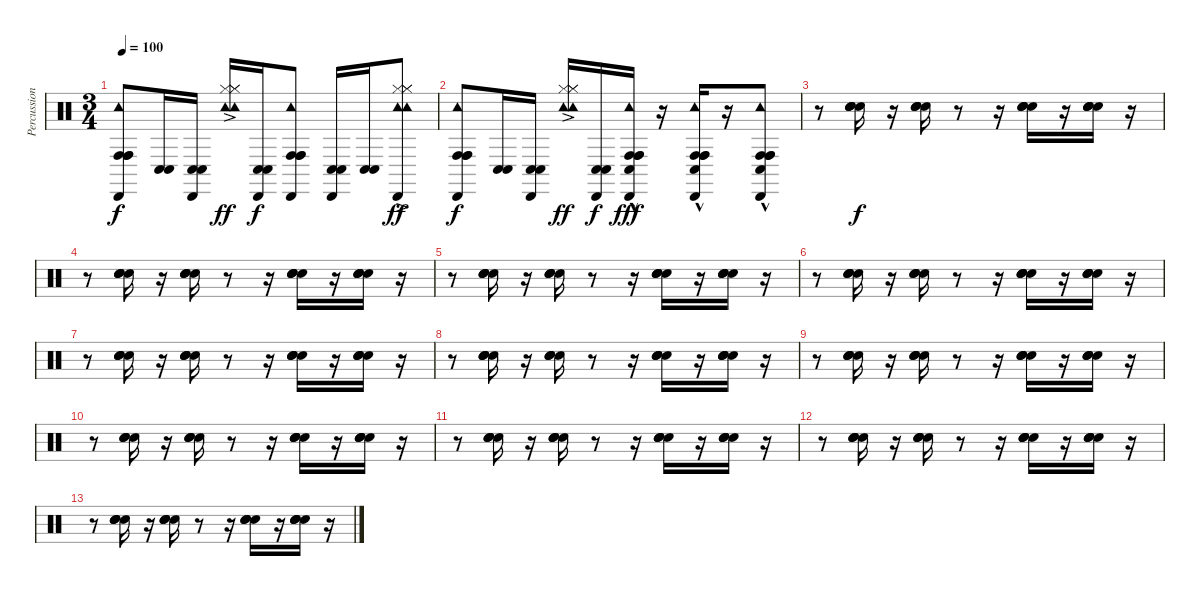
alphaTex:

\track ("Percussion" "Percussion") {instrument percussion}
\staff {score}
\articulation defaults
\ts (3 4)
\tempo 100
\clef neutral
\ks c
("Tambourine (hit)" "Conga high (hit)" "Conga high (hit)" "Conga high (hit)" "Cabasa (hit)").8{dy f} ("Conga low (hit)" "Conga low (hit)").16 ("Conga low (hit)" "Conga low (hit)" "Cabasa (hit)").16 ("Tambourine (hit)" "Tambourine (hit)" "Hi-Hat (closed)" "Hi-Hat (closed)" "Hi-Hat (closed)"{ac}).16{dy ff} ("Conga low (hit)" "Conga low (hit)" "Cabasa (hit)").16{dy f} ("Tambourine (hit)" "Conga high (hit)" "Conga high (hit)" "Conga high (hit)" "Cabasa (hit)").8 ("Conga low (hit)" "Conga low (hit)" "Cabasa (hit)").16 ("Conga low (hit)" "Conga low (hit)").16 ("Tambourine (hit)" "Tambourine (hit)" "Hi-Hat (closed)" "Hi-Hat (closed)" "Hi-Hat (closed)"{ac} "Cabasa (hit)").8{dy ff} |
("Tambourine (hit)" "Conga high (hit)" "Conga high (hit)" "Conga high (hit)" "Cabasa (hit)").8{dy f} ("Conga low (hit)" "Conga low (hit)").16 ("Conga low (hit)" "Conga low (hit)" "Cabasa (hit)").16 ("Tambourine (hit)" "Tambourine (hit)" "Hi-Hat (closed)" "Hi-Hat (closed)" "Hi-Hat (closed)"{ac}).16{dy ff} ("Conga low (hit)" "Conga low (hit)" "Cabasa (hit)").16{dy f} ("Tambourine (hit)"{hac} "Conga high (hit)"{hac} "Conga high (hit)"{hac} "Conga high (hit)"{hac} "Cabasa (hit)"{hac} "Conga low (hit)"{hac}).16{dy fff} r.16 ("Tambourine (hit)"{hac} "Conga high (hit)"{hac} "Conga high (hit)"{hac} "Conga high (hit)"{hac} "Conga low (hit)"{hac} "Cabasa (hit)"{hac}).16 r.16 ("Tambourine (hit)"{hac} "Conga high (hit)"{hac} "Conga high (hit)"{hac} "Conga high (hit)"{hac} "Conga low (hit)"{hac} "Cabasa (hit)"{hac}).8 |
r.8 ("Hand Clap (hit)" "Hand Clap (hit)" "Hand Clap (hit)" "Hand Clap (hit)").16{dy f} r.16 ("Hand Clap (hit)" "Hand Clap (hit)" "Hand Clap (hit)" "Hand Clap (hit)").16 r.8 r.16 ("Hand Clap (hit)" "Hand Clap (hit)" "Hand Clap (hit)" "Hand Clap (hit)").16 r.16 ("Hand Clap (hit)" "Hand Clap (hit)" "Hand Clap (hit)" "Hand Clap (hit)").16 r.16 |
r.8 ("Hand Clap (hit)" "Hand Clap (hit)" "Hand Clap (hit)" "Hand Clap (hit)").16 r.16 ("Hand Clap (hit)" "Hand Clap (hit)" "Hand Clap (hit)" "Hand Clap (hit)").16 r.8 r.16 ("Hand Clap (hit)" "Hand Clap (hit)" "Hand Clap (hit)" "Hand Clap (hit)").16 r.16 ("Hand Clap (hit)" "Hand Clap (hit)" "Hand Clap (hit)" "Hand Clap (hit)").16 r.16 |
r.8 ("Hand Clap (hit)" "Hand Clap (hit)" "Hand Clap (hit)" "Hand Clap (hit)").16 r.16 ("Hand Clap (hit)" "Hand Clap (hit)" "Hand Clap (hit)" "Hand Clap (hit)").16 r.8 r.16 ("Hand Clap (hit)" "Hand Clap (hit)" "Hand Clap (hit)" "Hand Clap (hit)").16 r.16 ("Hand Clap (hit)" "Hand Clap (hit)" "Hand Clap (hit)" "Hand Clap (hit)").16 r.16 |
r.8 ("Hand Clap (hit)" "Hand Clap (hit)" "Hand Clap (hit)" "Hand Clap (hit)").16 r.16 ("Hand Clap (hit)" "Hand Clap (hit)" "Hand Clap (hit)" "Hand Clap (hit)").16 r.8 r.16 ("Hand Clap (hit)" "Hand Clap (hit)" "Hand Clap (hit)" "Hand Clap (hit)").16 r.16 ("Hand Clap (hit)" "Hand Clap (hit)" "Hand Clap (hit)" "Hand Clap (hit)").16 r.16 |
r.8 ("Hand Clap (hit)" "Hand Clap (hit)" "Hand Clap (hit)" "Hand Clap (hit)").16 r.16 ("Hand Clap (hit)" "Hand Clap (hit)" "Hand Clap (hit)" "Hand Clap (hit)").16 r.8 r.16 ("Hand Clap (hit)" "Hand Clap (hit)" "Hand Clap (hit)" "Hand Clap (hit)").16 r.16 ("Hand Clap (hit)" "Hand Clap (hit)" "Hand Clap (hit)" "Hand Clap (hit)").16 r.16 |
r.8 ("Hand Clap (hit)" "Hand Clap (hit)" "Hand Clap (hit)" "Hand Clap (hit)").16 r.16 ("Hand Clap (hit)" "Hand Clap (hit)" "Hand Clap (hit)" "Hand Clap (hit)").16 r.8 r.16 ("Hand Clap (hit)" "Hand Clap (hit)" "Hand Clap (hit)" "Hand Clap (hit)").16 r.16 ("Hand Clap (hit)" "Hand Clap (hit)" "Hand Clap (hit)" "Hand Clap (hit)").16 r.16 |
r.8 ("Hand Clap (hit)" "Hand Clap (hit)" "Hand Clap (hit)" "Hand Clap (hit)").16 r.16 ("Hand Clap (hit)" "Hand Clap (hit)" "Hand Clap (hit)" "Hand Clap (hit)").16 r.8 r.16 ("Hand Clap (hit)" "Hand Clap (hit)" "Hand Clap (hit)" "Hand Clap (hit)").16 r.16 ("Hand Clap (hit)" "Hand Clap (hit)" "Hand Clap (hit)" "Hand Clap (hit)").16 r.16 |
r.8 ("Hand Clap (hit)" "Hand Clap (hit)" "Hand Clap (hit)" "Hand Clap (hit)").16 r.16 ("Hand Clap (hit)" "Hand Clap (hit)" "Hand Clap (hit)" "Hand Clap (hit)").16 r.8 r.16 ("Hand Clap (hit)" "Hand Clap (hit)" "Hand Clap (hit)" "Hand Clap (hit)").16 r.16 ("Hand Clap (hit)" "Hand Clap (hit)" "Hand Clap (hit)" "Hand Clap (hit)").16 r.16 |
r.8 ("Hand Clap (hit)" "Hand Clap (hit)" "Hand Clap (hit)" "Hand Clap (hit)").16 r.16 ("Hand Clap (hit)" "Hand Clap (hit)" "Hand Clap (hit)" "Hand Clap (hit)").16 r.8 r.16 ("Hand Clap (hit)" "Hand Clap (hit)" "Hand Clap (hit)" "Hand Clap (hit)").16 r.16 ("Hand Clap (hit)" "Hand Clap (hit)" "Hand Clap (hit)" "Hand Clap (hit)").16 r.16 |
r.8 ("Hand Clap (hit)" "Hand Clap (hit)" "Hand Clap (hit)" "Hand Clap (hit)").16 r.16 ("Hand Clap (hit)" "Hand Clap (hit)" "Hand Clap (hit)" "Hand Clap (hit)").16 r.8 r.16 ("Hand Clap (hit)" "Hand Clap (hit)" "Hand Clap (hit)" "Hand Clap (hit)").16 r.16 ("Hand Clap (hit)" "Hand Clap (hit)" "Hand Clap (hit)" "Hand Clap (hit)").16 r.16 |
r.8 ("Hand Clap (hit)" "Hand Clap (hit)" "Hand Clap (hit)" "Hand Clap (hit)").16 r.16 ("Hand Clap (hit)" "Hand Clap (hit)" "Hand Clap (hit)" "Hand Clap (hit)").16 r.8 r.16 ("Hand Clap (hit)" "Hand Clap (hit)" "Hand Clap (hit)" "Hand Clap (hit)").16 r.16 ("Hand Clap (hit)" "Hand Clap (hit)" "Hand Clap (hit)" "Hand Clap (hit)").16 r.16
